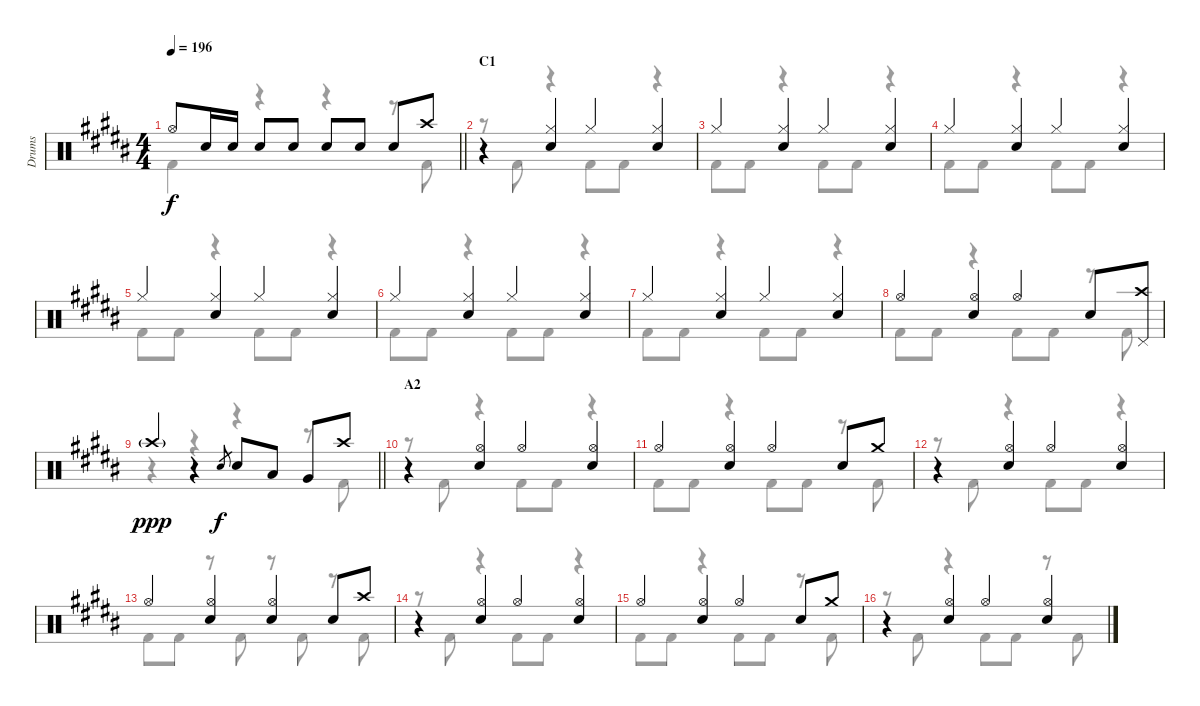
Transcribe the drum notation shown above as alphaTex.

\track ("Drums" "Drums") {instrument percussion}
\staff {score}
\articulation defaults
\voice
\ts (4 4)
\tempo 196
\clef neutral
\barLineRight lightlight
\ks b "Hi-Hat (open)".8{dy f} "Electric Snare (hit)".16 "Electric Snare (hit)".16 "Electric Snare (hit)".8 "Electric Snare (hit)".8 "Electric Snare (hit)".8 "Electric Snare (hit)".8 "Electric Snare (hit)".8 "Crash high (hit)".8
|
\section ("" "C1")
r.4 ("Hi-Hat (closed)" "Electric Snare (hit)").4 "Hi-Hat (closed)".4 ("Hi-Hat (closed)" "Electric Snare (hit)").4 |
"Hi-Hat (closed)".4 ("Hi-Hat (closed)" "Electric Snare (hit)").4 "Hi-Hat (closed)".4 ("Hi-Hat (closed)" "Electric Snare (hit)").4 |
"Hi-Hat (closed)".4 ("Hi-Hat (closed)" "Electric Snare (hit)").4 "Hi-Hat (closed)".4 ("Hi-Hat (closed)" "Electric Snare (hit)").4 |
"Hi-Hat (closed)".4 ("Hi-Hat (closed)" "Electric Snare (hit)").4 "Hi-Hat (closed)".4 ("Hi-Hat (closed)" "Electric Snare (hit)").4 |
"Hi-Hat (closed)".4 ("Hi-Hat (closed)" "Electric Snare (hit)").4 "Hi-Hat (closed)".4 ("Hi-Hat (closed)" "Electric Snare (hit)").4 |
"Hi-Hat (closed)".4 ("Hi-Hat (closed)" "Electric Snare (hit)").4 "Hi-Hat (closed)".4 ("Hi-Hat (closed)" "Electric Snare (hit)").4 |
"Hi-Hat (open)".4 ("Hi-Hat (open)" "Electric Snare (hit)").4 "Hi-Hat (open)".4 "Electric Snare (hit)".8 ("Crash high (hit)" "Pedal Hi-Hat (hit)").8 |
\barLineRight lightlight "Crash high (hit)"{g}.4{dy ppp}
r.4 "Electric Snare (hit)".8{gr dy f} "Electric Snare (hit)".8 "Low Tom (hit)".8 "Very Low Tom (hit)".8 "Crash high (hit)".8 |
\section ("" "A2")
r.4 ("Hi-Hat (open)" "Electric Snare (hit)").4 "Hi-Hat (open)".4 ("Hi-Hat (open)" "Electric Snare (hit)").4 |
"Hi-Hat (open)".4 ("Hi-Hat (open)" "Electric Snare (hit)").4 "Hi-Hat (open)".4 "Electric Snare (hit)".8 "Crash medium (hit)".8 |
r.4 ("Hi-Hat (open)" "Electric Snare (hit)").4 "Hi-Hat (open)".4 ("Hi-Hat (open)" "Electric Snare (hit)").4 |
"Hi-Hat (open)".4 ("Hi-Hat (open)" "Electric Snare (hit)").4 ("Hi-Hat (open)" "Electric Snare (hit)").4 "Electric Snare (hit)".8 "Crash high (hit)".8 |
r.4 ("Hi-Hat (open)" "Electric Snare (hit)").4 "Hi-Hat (open)".4 ("Hi-Hat (open)" "Electric Snare (hit)").4 |
"Hi-Hat (open)".4 ("Hi-Hat (open)" "Electric Snare (hit)").4 "Hi-Hat (open)".4 "Electric Snare (hit)".8 "Crash medium (hit)".8 |
r.4 ("Hi-Hat (open)" "Electric Snare (hit)").4 "Hi-Hat (open)".4 ("Hi-Hat (open)" "Electric Snare (hit)").4
\voice
\clef neutral
\ottava regular
\simile none
\barLineRight lightlight
\ks b "Kick (hit) 2".4{dy f}
r.4 r.4 r.8 "Kick (hit) 2".8 |
r.8 "Kick (hit) 2".8 r.4 "Kick (hit) 2".8 "Kick (hit) 2".8 r.4 |
"Kick (hit) 2".8 "Kick (hit) 2".8 r.4 "Kick (hit) 2".8 "Kick (hit) 2".8 r.4 |
"Kick (hit) 2".8 "Kick (hit) 2".8 r.4 "Kick (hit) 2".8 "Kick (hit) 2".8 r.4 |
"Kick (hit) 2".8 "Kick (hit) 2".8 r.4 "Kick (hit) 2".8 "Kick (hit) 2".8 r.4 |
"Kick (hit) 2".8 "Kick (hit) 2".8 r.4 "Kick (hit) 2".8 "Kick (hit) 2".8 r.4 |
"Kick (hit) 2".8 "Kick (hit) 2".8 r.4 "Kick (hit) 2".8 "Kick (hit) 2".8 r.4 |
"Kick (hit) 2".8 "Kick (hit) 2".8 r.4 "Kick (hit) 2".8 "Kick (hit) 2".8 r.8 "Kick (hit) 2".8 |
\barLineRight lightlight
r.4 r.4 r.4 r.8 "Kick (hit) 2".8 |
r.8 "Kick (hit) 2".8 r.4 "Kick (hit) 2".8 "Kick (hit) 2".8 r.4 |
"Kick (hit) 2".8 "Kick (hit) 2".8 r.4 "Kick (hit) 2".8 "Kick (hit) 2".8 r.8 "Kick (hit) 2".8 |
r.8 "Kick (hit) 2".8 r.4 "Kick (hit) 2".8 "Kick (hit) 2".8 r.4 |
"Kick (hit) 2".8 "Kick (hit) 2".8 r.8 "Kick (hit) 2".8 r.8 "Kick (hit) 2".8 r.8 "Kick (hit) 2".8 |
r.8 "Kick (hit) 2".8 r.4 "Kick (hit) 2".8 "Kick (hit) 2".8 r.4 |
"Kick (hit) 2".8 "Kick (hit) 2".8 r.4 "Kick (hit) 2".8 "Kick (hit) 2".8 r.8 "Kick (hit) 2".8 |
r.8 "Kick (hit) 2".8 r.4 "Kick (hit) 2".8 "Kick (hit) 2".8 r.8 "Kick (hit) 2".8
